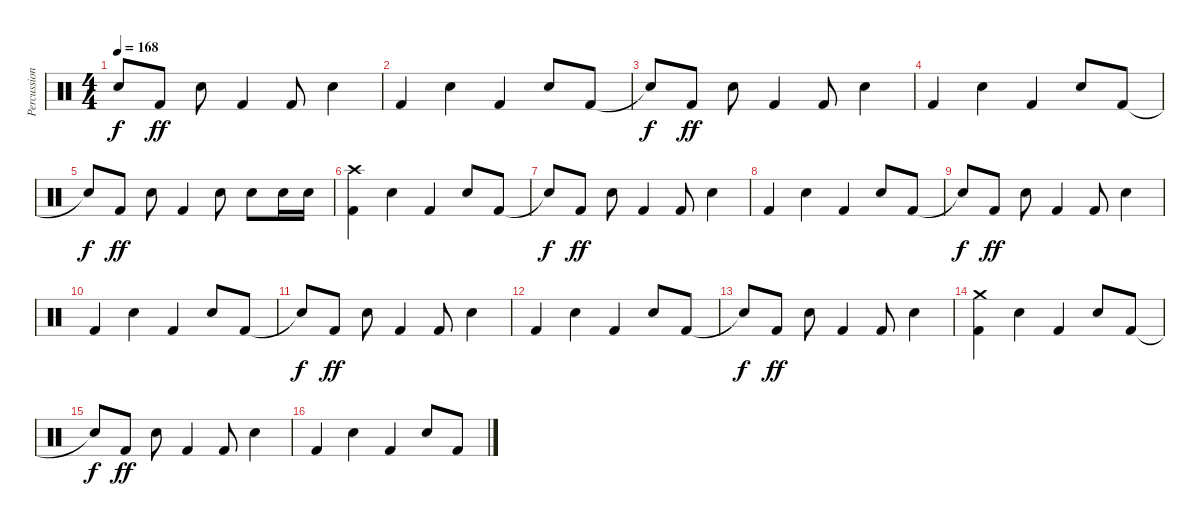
\track ("Percussions" "Percussion") {instrument percussion}
\staff {score}
\articulation defaults
\ts (4 4)
\tempo 168
\clef neutral
\ks c "Snare (hit)"{t}.8{dy f} "Kick (hit) 2".8{dy ff} "Snare (hit) 2".8 "Kick (hit) 2".4 "Kick (hit) 2".8 "Snare (hit) 2".4
|
"Kick (hit) 2".4 "Snare (hit) 2".4 "Kick (hit) 2".4 "Snare (hit) 2".8 "Kick (hit) 2".8 |
"Snare (hit)"{t}.8{dy f} "Kick (hit) 2".8{dy ff} "Snare (hit) 2".8 "Kick (hit) 2".4 "Kick (hit) 2".8 "Snare (hit) 2".4 |
"Kick (hit) 2".4 "Snare (hit) 2".4 "Kick (hit) 2".4 "Snare (hit) 2".8 "Kick (hit) 2".8 |
"Snare (hit)"{t}.8{dy f} "Kick (hit) 2".8{dy ff} "Snare (hit) 2".8 "Kick (hit) 2".4 "Snare (hit) 2".8 "Snare (hit) 2".8 "Snare (hit) 2".16 "Snare (hit) 2".16 |
("Kick (hit) 2" "Crash high (hit)").4 "Snare (hit) 2".4 "Kick (hit) 2".4 "Snare (hit) 2".8 "Kick (hit) 2".8 |
"Snare (hit)"{t}.8{dy f} "Kick (hit) 2".8{dy ff} "Snare (hit) 2".8 "Kick (hit) 2".4 "Kick (hit) 2".8 "Snare (hit) 2".4 |
"Kick (hit) 2".4 "Snare (hit) 2".4 "Kick (hit) 2".4 "Snare (hit) 2".8 "Kick (hit) 2".8 |
"Snare (hit)"{t}.8{dy f} "Kick (hit) 2".8{dy ff} "Snare (hit) 2".8 "Kick (hit) 2".4 "Kick (hit) 2".8 "Snare (hit) 2".4 |
"Kick (hit) 2".4 "Snare (hit) 2".4 "Kick (hit) 2".4 "Snare (hit) 2".8 "Kick (hit) 2".8 |
"Snare (hit)"{t}.8{dy f} "Kick (hit) 2".8{dy ff} "Snare (hit) 2".8 "Kick (hit) 2".4 "Kick (hit) 2".8 "Snare (hit) 2".4 |
"Kick (hit) 2".4 "Snare (hit) 2".4 "Kick (hit) 2".4 "Snare (hit) 2".8 "Kick (hit) 2".8 |
"Snare (hit)"{t}.8{dy f} "Kick (hit) 2".8{dy ff} "Snare (hit) 2".8 "Kick (hit) 2".4 "Kick (hit) 2".8 "Snare (hit) 2".4 |
("Kick (hit) 2" "Crash medium (hit)").4 "Snare (hit) 2".4 "Kick (hit) 2".4 "Snare (hit) 2".8 "Kick (hit) 2".8 |
"Snare (hit)"{t}.8{dy f} "Kick (hit) 2".8{dy ff} "Snare (hit) 2".8 "Kick (hit) 2".4 "Kick (hit) 2".8 "Snare (hit) 2".4 |
"Kick (hit) 2".4 "Snare (hit) 2".4 "Kick (hit) 2".4 "Snare (hit) 2".8 "Kick (hit) 2".8
